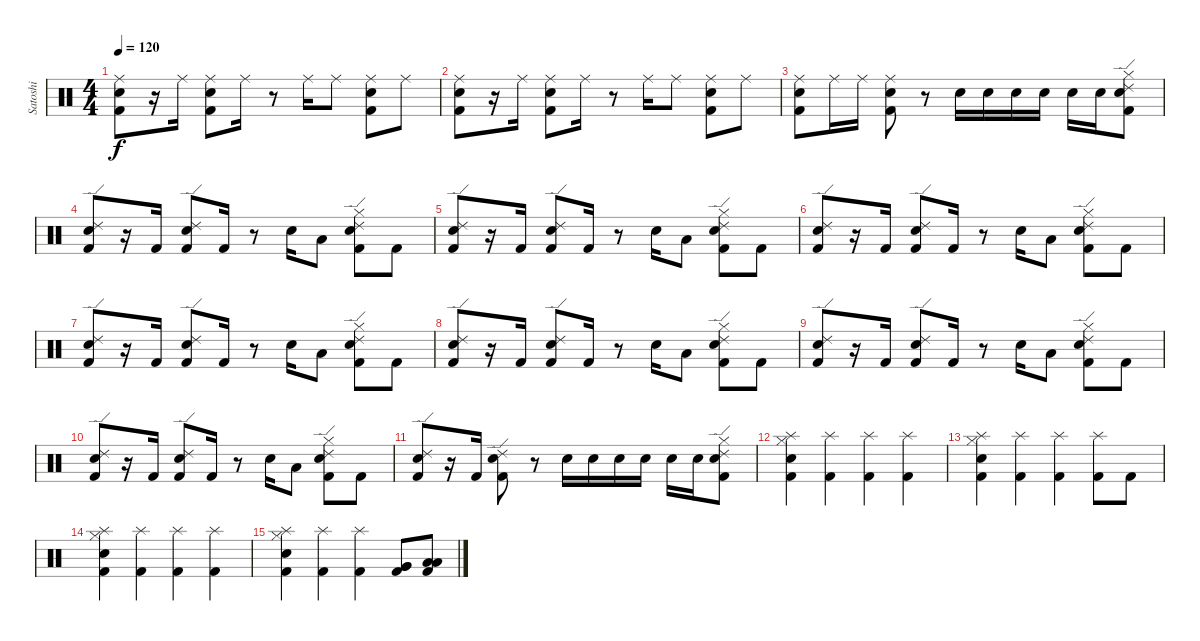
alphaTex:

\track ("Satoshi" "Satoshi") {instrument percussion}
\staff {score}
\articulation defaults
\ts (4 4)
\tempo 120
\clef neutral
\ks c
("Ride (middle)" "Electric Snare (hit)" "Kick (hit) 2").8{dy f} r.16 "Ride (middle)".16 ("Ride (middle)" "Electric Snare (hit)" "Kick (hit) 2").8 "Ride (middle)".16 r.8 "Ride (middle)".16 "Ride (middle)".8 ("Ride (middle)" "Electric Snare (hit)" "Kick (hit) 2").8 "Ride (middle)".8 |
("Ride (middle)" "Electric Snare (hit)" "Kick (hit) 2").8 r.16 "Ride (middle)".16 ("Ride (middle)" "Electric Snare (hit)" "Kick (hit) 2").8 "Ride (middle)".16 r.8 "Ride (middle)".16 "Ride (middle)".8 ("Ride (middle)" "Electric Snare (hit)" "Kick (hit) 2").8 "Ride (middle)".8 |
("Ride (middle)" "Electric Snare (hit)" "Kick (hit) 2").8 "Ride (middle)".16 "Ride (middle)".16 ("Ride (middle)" "Electric Snare (hit)" "Kick (hit) 2").8 r.8 "Electric Snare (hit)".16 "Electric Snare (hit)".16 "Electric Snare (hit)".16 "Electric Snare (hit)".16 "Electric Snare (hit)".16 "Electric Snare (hit)".16 ("Ride (edge) 2" "Hi-Hat (closed)" "Electric Snare (hit)" "Kick (hit) 2").8 |
("Ride (edge) 2" "Electric Snare (hit)" "Kick (hit) 2").8 r.16 "Kick (hit) 2".16 ("Ride (edge) 2" "Electric Snare (hit)" "Kick (hit) 2").8 "Kick (hit) 2".16 r.8 "Electric Snare (hit)".16 "Low Floor Tom (hit)".8 ("Ride (edge) 2" "Hi-Hat (closed)" "Electric Snare (hit)" "Kick (hit) 2").8 "Kick (hit) 2".8 |
("Ride (edge) 2" "Electric Snare (hit)" "Kick (hit) 2").8 r.16 "Kick (hit) 2".16 ("Ride (edge) 2" "Electric Snare (hit)" "Kick (hit) 2").8 "Kick (hit) 2".16 r.8 "Electric Snare (hit)".16 "Low Floor Tom (hit)".8 ("Ride (edge) 2" "Hi-Hat (closed)" "Electric Snare (hit)" "Kick (hit) 2").8 "Kick (hit) 2".8 |
("Ride (edge) 2" "Electric Snare (hit)" "Kick (hit) 2").8 r.16 "Kick (hit) 2".16 ("Ride (edge) 2" "Electric Snare (hit)" "Kick (hit) 2").8 "Kick (hit) 2".16 r.8 "Electric Snare (hit)".16 "Low Floor Tom (hit)".8 ("Ride (edge) 2" "Hi-Hat (closed)" "Electric Snare (hit)" "Kick (hit) 2").8 "Kick (hit) 2".8 |
("Ride (edge) 2" "Electric Snare (hit)" "Kick (hit) 2").8 r.16 "Kick (hit) 2".16 ("Ride (edge) 2" "Electric Snare (hit)" "Kick (hit) 2").8 "Kick (hit) 2".16 r.8 "Electric Snare (hit)".16 "Low Floor Tom (hit)".8 ("Ride (edge) 2" "Hi-Hat (closed)" "Electric Snare (hit)" "Kick (hit) 2").8 "Kick (hit) 2".8 |
("Ride (edge) 2" "Electric Snare (hit)" "Kick (hit) 2").8 r.16 "Kick (hit) 2".16 ("Ride (edge) 2" "Electric Snare (hit)" "Kick (hit) 2").8 "Kick (hit) 2".16 r.8 "Electric Snare (hit)".16 "Low Floor Tom (hit)".8 ("Ride (edge) 2" "Hi-Hat (closed)" "Electric Snare (hit)" "Kick (hit) 2").8 "Kick (hit) 2".8 |
("Ride (edge) 2" "Electric Snare (hit)" "Kick (hit) 2").8 r.16 "Kick (hit) 2".16 ("Ride (edge) 2" "Electric Snare (hit)" "Kick (hit) 2").8 "Kick (hit) 2".16 r.8 "Electric Snare (hit)".16 "Low Floor Tom (hit)".8 ("Ride (edge) 2" "Hi-Hat (closed)" "Electric Snare (hit)" "Kick (hit) 2").8 "Kick (hit) 2".8 |
("Ride (edge) 2" "Electric Snare (hit)" "Kick (hit) 2").8 r.16 "Kick (hit) 2".16 ("Ride (edge) 2" "Electric Snare (hit)" "Kick (hit) 2").8 "Kick (hit) 2".16 r.8 "Electric Snare (hit)".16 "Low Floor Tom (hit)".8 ("Ride (edge) 2" "Hi-Hat (closed)" "Electric Snare (hit)" "Kick (hit) 2").8 "Kick (hit) 2".8 |
("Ride (edge) 2" "Electric Snare (hit)" "Kick (hit) 2").8 r.16 "Kick (hit) 2".16 ("Ride (edge) 2" "Electric Snare (hit)" "Kick (hit) 2").8 r.8 "Electric Snare (hit)".16 "Electric Snare (hit)".16 "Electric Snare (hit)".16 "Electric Snare (hit)".16 "Electric Snare (hit)".16 "Electric Snare (hit)".16 ("Ride (edge) 2" "Hi-Hat (closed)" "Electric Snare (hit)" "Kick (hit) 2").8 |
("Splash (hit)" "Hi-Hat (closed)" "Electric Snare (hit)" "Kick (hit) 2").4 ("Splash (hit)" "Kick (hit) 2").4 ("Splash (hit)" "Kick (hit) 2").4 ("Splash (hit)" "Kick (hit) 2").4 |
("Splash (hit)" "Hi-Hat (closed)" "Electric Snare (hit)" "Kick (hit) 2").4 ("Splash (hit)" "Kick (hit) 2").4 ("Splash (hit)" "Kick (hit) 2").4 ("Splash (hit)" "Kick (hit) 2").8 "Kick (hit) 2".8 |
("Splash (hit)" "Hi-Hat (closed)" "Electric Snare (hit)" "Kick (hit) 2").4 ("Splash (hit)" "Kick (hit) 2").4 ("Splash (hit)" "Kick (hit) 2").4 ("Splash (hit)" "Kick (hit) 2").4 |
("Splash (hit)" "Hi-Hat (closed)" "Electric Snare (hit)" "Kick (hit) 2").4 ("Splash (hit)" "Kick (hit) 2").4 ("Splash (hit)" "Kick (hit) 2").4 ("Very Low Tom (hit)" "Very Low Tom (hit)" "Kick (hit) 2").8 ("Low Floor Tom (hit)" "Low Floor Tom (hit)" "Kick (hit) 2").8
